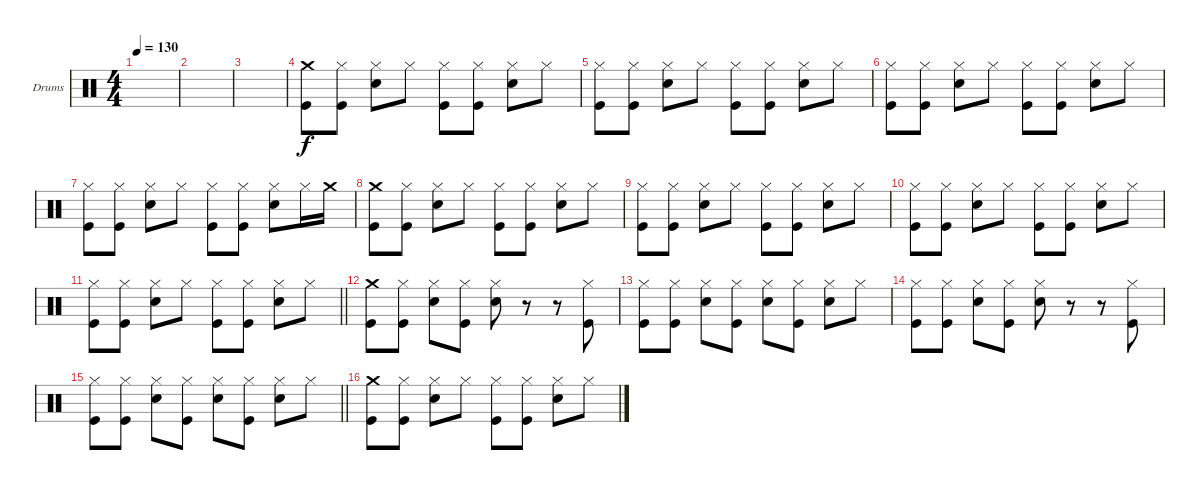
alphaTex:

\defaultSystemsLayout 4
\bracketExtendMode groupsimilarinstruments
\firstSystemTrackNameOrientation horizontal
\otherSystemsTrackNameOrientation horizontal
\track ("Drumkit" "Drums") {instrument percussion}
\staff {score}
\articulation defaults
\ts (4 4)
\tempo 130
\clef neutral
\ks aminor
|
|
|
("Kick (hit)" "Crash medium (hit)").8 ("Kick (hit)" "Hi-Hat (closed)").8 ("Snare (hit) 2" "Hi-Hat (closed)").8 "Hi-Hat (closed)".8 ("Kick (hit)" "Hi-Hat (closed)").8 ("Kick (hit)" "Hi-Hat (closed)").8 ("Snare (hit) 2" "Hi-Hat (closed)").8 "Hi-Hat (closed)".8 |
("Kick (hit)" "Hi-Hat (closed)").8 ("Kick (hit)" "Hi-Hat (closed)").8 ("Snare (hit) 2" "Hi-Hat (closed)").8 "Hi-Hat (closed)".8 ("Kick (hit)" "Hi-Hat (closed)").8 ("Kick (hit)" "Hi-Hat (closed)").8 ("Snare (hit) 2" "Hi-Hat (closed)").8 "Hi-Hat (closed)".8 |
("Kick (hit)" "Hi-Hat (closed)").8 ("Kick (hit)" "Hi-Hat (closed)").8 ("Snare (hit) 2" "Hi-Hat (closed)").8 "Hi-Hat (closed)".8 ("Kick (hit)" "Hi-Hat (closed)").8 ("Kick (hit)" "Hi-Hat (closed)").8 ("Snare (hit) 2" "Hi-Hat (closed)").8 "Hi-Hat (closed)".8 |
("Kick (hit)" "Hi-Hat (closed)").8 ("Kick (hit)" "Hi-Hat (closed)").8 ("Snare (hit) 2" "Hi-Hat (closed)").8 "Hi-Hat (closed)".8 ("Kick (hit)" "Hi-Hat (closed)").8 ("Kick (hit)" "Hi-Hat (closed)").8 ("Snare (hit) 2" "Hi-Hat (closed)").8 "Hi-Hat (closed)".16 "Crash medium (hit)".16 |
("Kick (hit)" "Crash medium (hit)").8 ("Kick (hit)" "Hi-Hat (closed)").8 ("Snare (hit) 2" "Hi-Hat (closed)").8 "Hi-Hat (closed)".8 ("Kick (hit)" "Hi-Hat (closed)").8 ("Kick (hit)" "Hi-Hat (closed)").8 ("Snare (hit) 2" "Hi-Hat (closed)").8 "Hi-Hat (closed)".8 |
("Kick (hit)" "Hi-Hat (closed)").8 ("Kick (hit)" "Hi-Hat (closed)").8 ("Snare (hit) 2" "Hi-Hat (closed)").8 "Hi-Hat (closed)".8 ("Kick (hit)" "Hi-Hat (closed)").8 ("Kick (hit)" "Hi-Hat (closed)").8 ("Snare (hit) 2" "Hi-Hat (closed)").8 "Hi-Hat (closed)".8 |
("Kick (hit)" "Hi-Hat (closed)").8 ("Kick (hit)" "Hi-Hat (closed)").8 ("Snare (hit) 2" "Hi-Hat (closed)").8 "Hi-Hat (closed)".8 ("Kick (hit)" "Hi-Hat (closed)").8 ("Kick (hit)" "Hi-Hat (closed)").8 ("Snare (hit) 2" "Hi-Hat (closed)").8 "Hi-Hat (closed)".8 |
\barLineRight lightlight
("Kick (hit)" "Hi-Hat (closed)").8 ("Kick (hit)" "Hi-Hat (closed)").8 ("Snare (hit) 2" "Hi-Hat (closed)").8 "Hi-Hat (closed)".8 ("Kick (hit)" "Hi-Hat (closed)").8 ("Kick (hit)" "Hi-Hat (closed)").8 ("Snare (hit) 2" "Hi-Hat (closed)").8 "Hi-Hat (closed)".8 |
("Kick (hit)" "Crash medium (hit)").8 ("Kick (hit)" "Hi-Hat (closed)").8 ("Snare (hit) 2" "Hi-Hat (closed)").8 ("Kick (hit)" "Hi-Hat (closed)").8 ("Snare (hit) 2" "Hi-Hat (closed)").8 r.8 r.8 ("Kick (hit)" "Hi-Hat (closed)").8 |
("Kick (hit)" "Hi-Hat (closed)").8 ("Kick (hit)" "Hi-Hat (closed)").8 ("Snare (hit) 2" "Hi-Hat (closed)").8 ("Kick (hit)" "Hi-Hat (closed)").8 ("Snare (hit) 2" "Hi-Hat (closed)").8 ("Kick (hit)" "Hi-Hat (closed)").8 ("Snare (hit) 2" "Hi-Hat (closed)").8 "Hi-Hat (closed)".8 |
("Kick (hit)" "Hi-Hat (closed)").8 ("Kick (hit)" "Hi-Hat (closed)").8 ("Snare (hit) 2" "Hi-Hat (closed)").8 ("Kick (hit)" "Hi-Hat (closed)").8 ("Snare (hit) 2" "Hi-Hat (closed)").8 r.8 r.8 ("Kick (hit)" "Hi-Hat (closed)").8 |
\barLineRight lightlight
("Kick (hit)" "Hi-Hat (closed)").8 ("Kick (hit)" "Hi-Hat (closed)").8 ("Snare (hit) 2" "Hi-Hat (closed)").8 ("Kick (hit)" "Hi-Hat (closed)").8 ("Snare (hit) 2" "Hi-Hat (closed)").8 ("Kick (hit)" "Hi-Hat (closed)").8 ("Snare (hit) 2" "Hi-Hat (closed)").8 "Hi-Hat (closed)".8 |
("Kick (hit)" "Crash medium (hit)").8 ("Kick (hit)" "Hi-Hat (closed)").8 ("Snare (hit) 2" "Hi-Hat (closed)").8 "Hi-Hat (closed)".8 ("Kick (hit)" "Hi-Hat (closed)").8 ("Kick (hit)" "Hi-Hat (closed)").8 ("Snare (hit) 2" "Hi-Hat (closed)").8 "Hi-Hat (closed)".8
